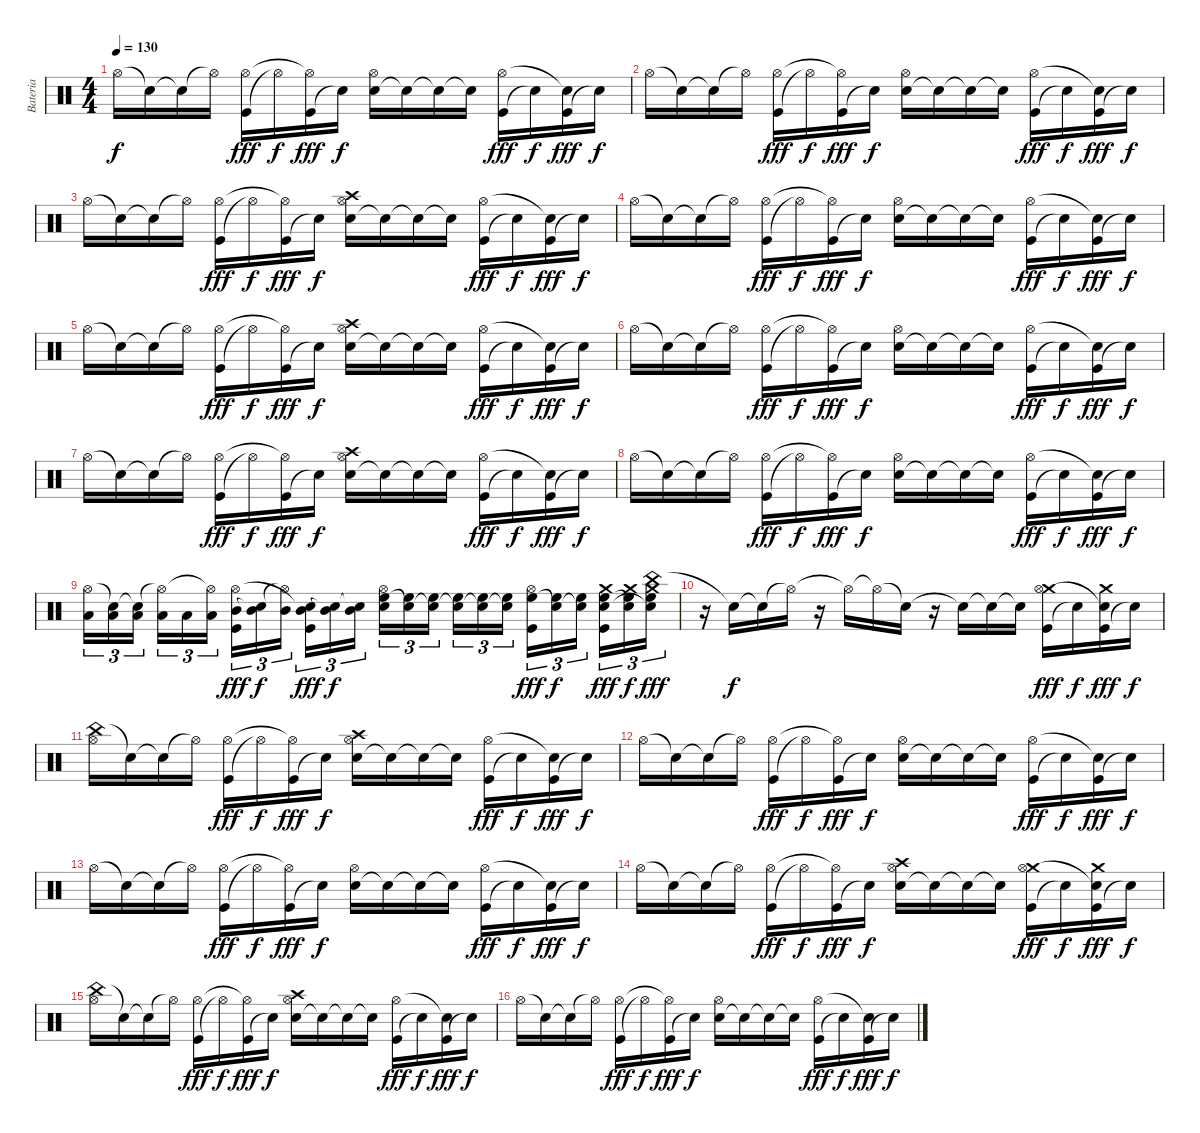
\track ("Bateria" "Bateria") {instrument percussion}
\staff {score}
\articulation defaults
\ts (4 4)
\tempo 130
\clef neutral
\ks c "Hi-Hat (open)".16{dy f} "Snare (hit)"{t}.16 "Snare (hit)"{t}.16 "Hi-Hat (open)"{t}.16
("Kick (hit)" "Hi-Hat (open)").16{dy fff} "Hi-Hat (open)"{t}.16{dy f} ("Kick (hit)" "Hi-Hat (open)"{t}).16{dy fff} "Snare (hit)"{t}.16{dy f} ("Electric Snare (hit)" "Hi-Hat (open)").16 "Snare (hit)"{t}.16 "Snare (hit)"{t}.16 "Snare (hit)"{t}.16 ("Kick (hit)" "Hi-Hat (open)").16{dy fff} "Snare (hit)"{t}.16{dy f} ("Kick (hit)" "Snare (hit)"{t}).16{dy fff} "Snare (hit)"{t}.16{dy f} |
"Hi-Hat (open)".16 "Snare (hit)"{t}.16 "Snare (hit)"{t}.16 "Hi-Hat (open)"{t}.16 ("Kick (hit)" "Hi-Hat (open)").16{dy fff} "Hi-Hat (open)"{t}.16{dy f} ("Kick (hit)" "Hi-Hat (open)"{t}).16{dy fff} "Snare (hit)"{t}.16{dy f} ("Electric Snare (hit)" "Hi-Hat (open)").16 "Snare (hit)"{t}.16 "Snare (hit)"{t}.16 "Snare (hit)"{t}.16 ("Kick (hit)" "Hi-Hat (open)").16{dy fff} "Snare (hit)"{t}.16{dy f} ("Kick (hit)" "Snare (hit)"{t}).16{dy fff} "Snare (hit)"{t}.16{dy f} |
"Hi-Hat (open)".16 "Snare (hit)"{t}.16 "Snare (hit)"{t}.16 "Hi-Hat (open)"{t}.16 ("Kick (hit)" "Hi-Hat (open)").16{dy fff} "Hi-Hat (open)"{t}.16{dy f} ("Kick (hit)" "Hi-Hat (open)"{t}).16{dy fff} "Snare (hit)"{t}.16{dy f} ("Electric Snare (hit)" "Crash high (hit)" "Hi-Hat (open)").16 "Snare (hit)"{t}.16 "Snare (hit)"{t}.16 "Snare (hit)"{t}.16 ("Kick (hit)" "Hi-Hat (open)").16{dy fff} "Snare (hit)"{t}.16{dy f} ("Kick (hit)" "Snare (hit)"{t}).16{dy fff} "Snare (hit)"{t}.16{dy f} |
"Hi-Hat (open)".16 "Snare (hit)"{t}.16 "Snare (hit)"{t}.16 "Hi-Hat (open)"{t}.16 ("Kick (hit)" "Hi-Hat (open)").16{dy fff} "Hi-Hat (open)"{t}.16{dy f} ("Kick (hit)" "Hi-Hat (open)"{t}).16{dy fff} "Snare (hit)"{t}.16{dy f} ("Electric Snare (hit)" "Hi-Hat (open)").16 "Snare (hit)"{t}.16 "Snare (hit)"{t}.16 "Snare (hit)"{t}.16 ("Kick (hit)" "Hi-Hat (open)").16{dy fff} "Snare (hit)"{t}.16{dy f} ("Kick (hit)" "Snare (hit)"{t}).16{dy fff} "Snare (hit)"{t}.16{dy f} |
"Hi-Hat (open)".16 "Snare (hit)"{t}.16 "Snare (hit)"{t}.16 "Hi-Hat (open)"{t}.16 ("Kick (hit)" "Hi-Hat (open)").16{dy fff} "Hi-Hat (open)"{t}.16{dy f} ("Kick (hit)" "Hi-Hat (open)"{t}).16{dy fff} "Snare (hit)"{t}.16{dy f} ("Electric Snare (hit)" "Crash high (hit)" "Hi-Hat (open)").16 "Snare (hit)"{t}.16 "Snare (hit)"{t}.16 "Snare (hit)"{t}.16 ("Kick (hit)" "Hi-Hat (open)").16{dy fff} "Snare (hit)"{t}.16{dy f} ("Kick (hit)" "Snare (hit)"{t}).16{dy fff} "Snare (hit)"{t}.16{dy f} |
"Hi-Hat (open)".16 "Snare (hit)"{t}.16 "Snare (hit)"{t}.16 "Hi-Hat (open)"{t}.16 ("Kick (hit)" "Hi-Hat (open)").16{dy fff} "Hi-Hat (open)"{t}.16{dy f} ("Kick (hit)" "Hi-Hat (open)"{t}).16{dy fff} "Snare (hit)"{t}.16{dy f} ("Electric Snare (hit)" "Hi-Hat (open)").16 "Snare (hit)"{t}.16 "Snare (hit)"{t}.16 "Snare (hit)"{t}.16 ("Kick (hit)" "Hi-Hat (open)").16{dy fff} "Snare (hit)"{t}.16{dy f} ("Kick (hit)" "Snare (hit)"{t}).16{dy fff} "Snare (hit)"{t}.16{dy f} |
"Hi-Hat (open)".16 "Snare (hit)"{t}.16 "Snare (hit)"{t}.16 "Hi-Hat (open)"{t}.16 ("Kick (hit)" "Hi-Hat (open)").16{dy fff} "Hi-Hat (open)"{t}.16{dy f} ("Kick (hit)" "Hi-Hat (open)"{t}).16{dy fff} "Snare (hit)"{t}.16{dy f} ("Electric Snare (hit)" "Crash high (hit)" "Hi-Hat (open)").16 "Snare (hit)"{t}.16 "Snare (hit)"{t}.16 "Snare (hit)"{t}.16 ("Kick (hit)" "Hi-Hat (open)").16{dy fff} "Snare (hit)"{t}.16{dy f} ("Kick (hit)" "Snare (hit)"{t}).16{dy fff} "Snare (hit)"{t}.16{dy f} |
"Hi-Hat (open)".16 "Snare (hit)"{t}.16 "Snare (hit)"{t}.16 "Hi-Hat (open)"{t}.16 ("Kick (hit)" "Hi-Hat (open)").16{dy fff} "Hi-Hat (open)"{t}.16{dy f} ("Kick (hit)" "Hi-Hat (open)"{t}).16{dy fff} "Snare (hit)"{t}.16{dy f} ("Electric Snare (hit)" "Hi-Hat (open)").16 "Snare (hit)"{t}.16 "Snare (hit)"{t}.16 "Snare (hit)"{t}.16 ("Kick (hit)" "Hi-Hat (open)").16{dy fff} "Snare (hit)"{t}.16{dy f} ("Kick (hit)" "Snare (hit)"{t}).16{dy fff} "Snare (hit)"{t}.16{dy f} |
("Low Tom (hit)" "Hi-Hat (open)").16{tu (3 2)} ("Low Tom (hit)" "Snare (hit)"{t}).16{tu (3 2)} ("Low Tom (hit)" "Snare (hit)"{t}).16{tu (3 2)} ("Low Tom (hit)" "Hi-Hat (open)"{t}).16{tu (3 2)} "Low Tom (hit)".16{tu (3 2)} ("Low Tom (hit)" "Hi-Hat (open)"{t}).16{tu (3 2)} ("Kick (hit)" "Mid Tom (hit)" "Hi-Hat (open)").16{tu (3 2) dy fff} ("Mid Tom (hit)" "Snare (hit)"{t}).16{tu (3 2) dy f} ("Mid Tom (hit)" "Hi-Hat (open)"{t}).16{tu (3 2)} ("Kick (hit)" "Mid Tom (hit)" "Snare (hit)"{t}).16{tu (3 2) dy fff} ("Mid Tom (hit)" "Snare (hit)"{t}).16{tu (3 2) dy f} ("Mid Tom (hit)" "Snare (hit)"{t}).16{tu (3 2)} ("Electric Snare (hit)" "High Floor Tom (hit)" "Hi-Hat (open)").16{tu (3 2)} ("High Floor Tom (hit)" "Snare (hit)"{t}).16{tu (3 2)} ("High Floor Tom (hit)" "Snare (hit)"{t}).16{tu (3 2)} ("High Floor Tom (hit)" "Snare (hit)"{t}).16{tu (3 2)} ("High Floor Tom (hit)" "Snare (hit)"{t}).16{tu (3 2)} ("High Floor Tom (hit)" "Snare (hit)"{t}).16{tu (3 2)} ("Kick (hit)" "High Floor Tom (hit)" "Hi-Hat (open)").16{tu (3 2) dy fff} ("High Floor Tom (hit)" "Snare (hit)"{t}).16{tu (3 2) dy f} ("High Floor Tom (hit)" "Snare (hit)"{t}).16{tu (3 2)} ("Kick (hit)" "Crash medium (hit)" "High Floor Tom (hit)" "Snare (hit)").16{tu (3 2) dy fff} ("Crash medium (hit)" "High Floor Tom (hit)" "Snare (hit)"{t}).16{tu (3 2) dy f} ("China (hit)" "Crash medium (hit)" "High Floor Tom (hit)" "Snare (hit)"{t}).16{tu (3 2) dy fff} |
r.16 "Snare (hit)"{t}.16{dy f} "Snare (hit)"{t}.16 "Hi-Hat (open)"{t}.16 r.16 "Hi-Hat (open)"{t}.16 "Hi-Hat (open)"{t}.16 "Snare (hit)"{t}.16 r.16 "Snare (hit)"{t}.16 "Snare (hit)"{t}.16 "Snare (hit)"{t}.16 ("Kick (hit)" "Crash medium (hit)" "Hi-Hat (open)").16{dy fff} "Snare (hit)"{t}.16{dy f} ("Kick (hit)" "Crash medium (hit)" "Snare (hit)"{t}).16{dy fff} "Snare (hit)"{t}.16{dy f} |
("China (hit)" "Hi-Hat (open)").16 "Snare (hit)"{t}.16 "Snare (hit)"{t}.16 "Hi-Hat (open)"{t}.16 ("Kick (hit)" "Hi-Hat (open)").16{dy fff} "Hi-Hat (open)"{t}.16{dy f} ("Kick (hit)" "Hi-Hat (open)"{t}).16{dy fff} "Snare (hit)"{t}.16{dy f} ("Electric Snare (hit)" "Crash high (hit)" "Hi-Hat (open)").16 "Snare (hit)"{t}.16 "Snare (hit)"{t}.16 "Snare (hit)"{t}.16 ("Kick (hit)" "Hi-Hat (open)").16{dy fff} "Snare (hit)"{t}.16{dy f} ("Kick (hit)" "Snare (hit)"{t}).16{dy fff} "Snare (hit)"{t}.16{dy f} |
"Hi-Hat (open)".16 "Snare (hit)"{t}.16 "Snare (hit)"{t}.16 "Hi-Hat (open)"{t}.16 ("Kick (hit)" "Hi-Hat (open)").16{dy fff} "Hi-Hat (open)"{t}.16{dy f} ("Kick (hit)" "Hi-Hat (open)"{t}).16{dy fff} "Snare (hit)"{t}.16{dy f} ("Electric Snare (hit)" "Hi-Hat (open)").16 "Snare (hit)"{t}.16 "Snare (hit)"{t}.16 "Snare (hit)"{t}.16 ("Kick (hit)" "Hi-Hat (open)").16{dy fff} "Snare (hit)"{t}.16{dy f} ("Kick (hit)" "Snare (hit)"{t}).16{dy fff} "Snare (hit)"{t}.16{dy f} |
"Hi-Hat (open)".16 "Snare (hit)"{t}.16 "Snare (hit)"{t}.16 "Hi-Hat (open)"{t}.16 ("Kick (hit)" "Hi-Hat (open)").16{dy fff} "Hi-Hat (open)"{t}.16{dy f} ("Kick (hit)" "Hi-Hat (open)"{t}).16{dy fff} "Snare (hit)"{t}.16{dy f} ("Electric Snare (hit)" "Hi-Hat (open)").16 "Snare (hit)"{t}.16 "Snare (hit)"{t}.16 "Snare (hit)"{t}.16 ("Kick (hit)" "Hi-Hat (open)").16{dy fff} "Snare (hit)"{t}.16{dy f} ("Kick (hit)" "Snare (hit)"{t}).16{dy fff} "Snare (hit)"{t}.16{dy f} |
"Hi-Hat (open)".16 "Snare (hit)"{t}.16 "Snare (hit)"{t}.16 "Hi-Hat (open)"{t}.16 ("Kick (hit)" "Hi-Hat (open)").16{dy fff} "Hi-Hat (open)"{t}.16{dy f} ("Kick (hit)" "Hi-Hat (open)"{t}).16{dy fff} "Snare (hit)"{t}.16{dy f} ("Electric Snare (hit)" "Crash high (hit)" "Hi-Hat (open)").16 "Snare (hit)"{t}.16 "Snare (hit)"{t}.16 "Snare (hit)"{t}.16 ("Kick (hit)" "Crash medium (hit)" "Hi-Hat (open)").16{dy fff} "Snare (hit)"{t}.16{dy f} ("Kick (hit)" "Crash medium (hit)" "Snare (hit)"{t}).16{dy fff} "Snare (hit)"{t}.16{dy f} |
("China (hit)" "Hi-Hat (open)").16 "Snare (hit)"{t}.16 "Snare (hit)"{t}.16 "Hi-Hat (open)"{t}.16 ("Kick (hit)" "Hi-Hat (open)").16{dy fff} "Hi-Hat (open)"{t}.16{dy f} ("Kick (hit)" "Hi-Hat (open)"{t}).16{dy fff} "Snare (hit)"{t}.16{dy f} ("Electric Snare (hit)" "Crash high (hit)" "Hi-Hat (open)").16 "Snare (hit)"{t}.16 "Snare (hit)"{t}.16 "Snare (hit)"{t}.16 ("Kick (hit)" "Hi-Hat (open)").16{dy fff} "Snare (hit)"{t}.16{dy f} ("Kick (hit)" "Snare (hit)"{t}).16{dy fff} "Snare (hit)"{t}.16{dy f} |
"Hi-Hat (open)".16 "Snare (hit)"{t}.16 "Snare (hit)"{t}.16 "Hi-Hat (open)"{t}.16 ("Kick (hit)" "Hi-Hat (open)").16{dy fff} "Hi-Hat (open)"{t}.16{dy f} ("Kick (hit)" "Hi-Hat (open)"{t}).16{dy fff} "Snare (hit)"{t}.16{dy f} ("Electric Snare (hit)" "Hi-Hat (open)").16 "Snare (hit)"{t}.16 "Snare (hit)"{t}.16 "Snare (hit)"{t}.16 ("Kick (hit)" "Hi-Hat (open)").16{dy fff} "Snare (hit)"{t}.16{dy f} ("Kick (hit)" "Snare (hit)"{t}).16{dy fff} "Snare (hit)"{t}.16{dy f}
